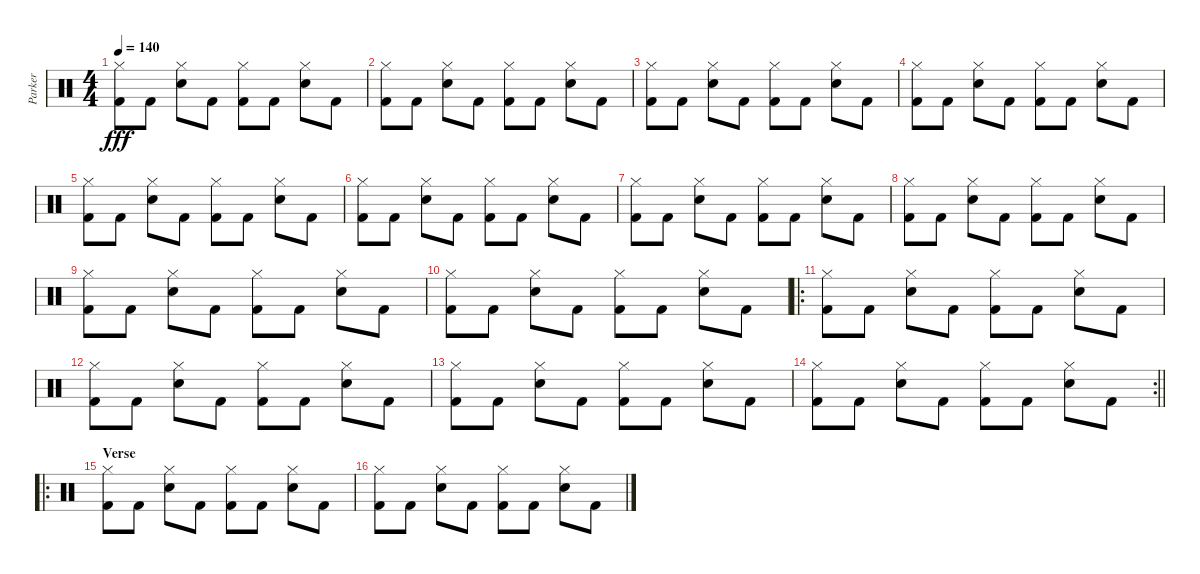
\track ("Parker" "Parker") {instrument percussion}
\staff {score}
\articulation defaults
\ts (4 4)
\tempo 140
\clef neutral
\ks c
("Kick (hit) 2" "Hi-Hat (closed)").8{dy fff} "Kick (hit) 2".8 ("Hi-Hat (closed)" "Snare (hit) 2").8 "Kick (hit) 2".8 ("Kick (hit) 2" "Hi-Hat (closed)").8 "Kick (hit) 2".8 ("Hi-Hat (closed)" "Snare (hit) 2").8 "Kick (hit) 2".8 |
("Kick (hit) 2" "Hi-Hat (closed)").8 "Kick (hit) 2".8 ("Hi-Hat (closed)" "Snare (hit) 2").8 "Kick (hit) 2".8 ("Kick (hit) 2" "Hi-Hat (closed)").8 "Kick (hit) 2".8 ("Hi-Hat (closed)" "Snare (hit) 2").8 "Kick (hit) 2".8 |
("Kick (hit) 2" "Hi-Hat (closed)").8 "Kick (hit) 2".8 ("Hi-Hat (closed)" "Snare (hit) 2").8 "Kick (hit) 2".8 ("Kick (hit) 2" "Hi-Hat (closed)").8 "Kick (hit) 2".8 ("Hi-Hat (closed)" "Snare (hit) 2").8 "Kick (hit) 2".8 |
("Kick (hit) 2" "Hi-Hat (closed)").8 "Kick (hit) 2".8 ("Hi-Hat (closed)" "Snare (hit) 2").8 "Kick (hit) 2".8 ("Kick (hit) 2" "Hi-Hat (closed)").8 "Kick (hit) 2".8 ("Hi-Hat (closed)" "Snare (hit) 2").8 "Kick (hit) 2".8 |
("Kick (hit) 2" "Hi-Hat (closed)").8 "Kick (hit) 2".8 ("Hi-Hat (closed)" "Snare (hit) 2").8 "Kick (hit) 2".8 ("Kick (hit) 2" "Hi-Hat (closed)").8 "Kick (hit) 2".8 ("Hi-Hat (closed)" "Snare (hit) 2").8 "Kick (hit) 2".8 |
("Kick (hit) 2" "Hi-Hat (closed)").8 "Kick (hit) 2".8 ("Hi-Hat (closed)" "Snare (hit) 2").8 "Kick (hit) 2".8 ("Kick (hit) 2" "Hi-Hat (closed)").8 "Kick (hit) 2".8 ("Hi-Hat (closed)" "Snare (hit) 2").8 "Kick (hit) 2".8 |
("Kick (hit) 2" "Hi-Hat (closed)").8 "Kick (hit) 2".8 ("Hi-Hat (closed)" "Snare (hit) 2").8 "Kick (hit) 2".8 ("Kick (hit) 2" "Hi-Hat (closed)").8 "Kick (hit) 2".8 ("Hi-Hat (closed)" "Snare (hit) 2").8 "Kick (hit) 2".8 |
("Kick (hit) 2" "Hi-Hat (closed)").8 "Kick (hit) 2".8 ("Hi-Hat (closed)" "Snare (hit) 2").8 "Kick (hit) 2".8 ("Kick (hit) 2" "Hi-Hat (closed)").8 "Kick (hit) 2".8 ("Hi-Hat (closed)" "Snare (hit) 2").8 "Kick (hit) 2".8 |
("Kick (hit) 2" "Hi-Hat (closed)").8 "Kick (hit) 2".8 ("Hi-Hat (closed)" "Snare (hit) 2").8 "Kick (hit) 2".8 ("Kick (hit) 2" "Hi-Hat (closed)").8 "Kick (hit) 2".8 ("Hi-Hat (closed)" "Snare (hit) 2").8 "Kick (hit) 2".8 |
("Kick (hit) 2" "Hi-Hat (closed)").8 "Kick (hit) 2".8 ("Hi-Hat (closed)" "Snare (hit) 2").8 "Kick (hit) 2".8 ("Kick (hit) 2" "Hi-Hat (closed)").8 "Kick (hit) 2".8 ("Hi-Hat (closed)" "Snare (hit) 2").8 "Kick (hit) 2".8 |
\ro
("Kick (hit) 2" "Hi-Hat (closed)").8 "Kick (hit) 2".8 ("Hi-Hat (closed)" "Snare (hit) 2").8 "Kick (hit) 2".8 ("Kick (hit) 2" "Hi-Hat (closed)").8 "Kick (hit) 2".8 ("Hi-Hat (closed)" "Snare (hit) 2").8 "Kick (hit) 2".8 |
("Kick (hit) 2" "Hi-Hat (closed)").8 "Kick (hit) 2".8 ("Hi-Hat (closed)" "Snare (hit) 2").8 "Kick (hit) 2".8 ("Kick (hit) 2" "Hi-Hat (closed)").8 "Kick (hit) 2".8 ("Hi-Hat (closed)" "Snare (hit) 2").8 "Kick (hit) 2".8 |
("Kick (hit) 2" "Hi-Hat (closed)").8 "Kick (hit) 2".8 ("Hi-Hat (closed)" "Snare (hit) 2").8 "Kick (hit) 2".8 ("Kick (hit) 2" "Hi-Hat (closed)").8 "Kick (hit) 2".8 ("Hi-Hat (closed)" "Snare (hit) 2").8 "Kick (hit) 2".8 |
\rc 2
\barLineRight lightlight
("Kick (hit) 2" "Hi-Hat (closed)").8 "Kick (hit) 2".8 ("Hi-Hat (closed)" "Snare (hit) 2").8 "Kick (hit) 2".8 ("Kick (hit) 2" "Hi-Hat (closed)").8 "Kick (hit) 2".8 ("Hi-Hat (closed)" "Snare (hit) 2").8 "Kick (hit) 2".8 |
\ro
\section ("" "Verse")
("Kick (hit) 2" "Hi-Hat (closed)").8 "Kick (hit) 2".8 ("Hi-Hat (closed)" "Snare (hit) 2").8 "Kick (hit) 2".8 ("Kick (hit) 2" "Hi-Hat (closed)").8 "Kick (hit) 2".8 ("Hi-Hat (closed)" "Snare (hit) 2").8 "Kick (hit) 2".8 |
("Kick (hit) 2" "Hi-Hat (closed)").8 "Kick (hit) 2".8 ("Hi-Hat (closed)" "Snare (hit) 2").8 "Kick (hit) 2".8 ("Kick (hit) 2" "Hi-Hat (closed)").8 "Kick (hit) 2".8 ("Hi-Hat (closed)" "Snare (hit) 2").8 "Kick (hit) 2".8
